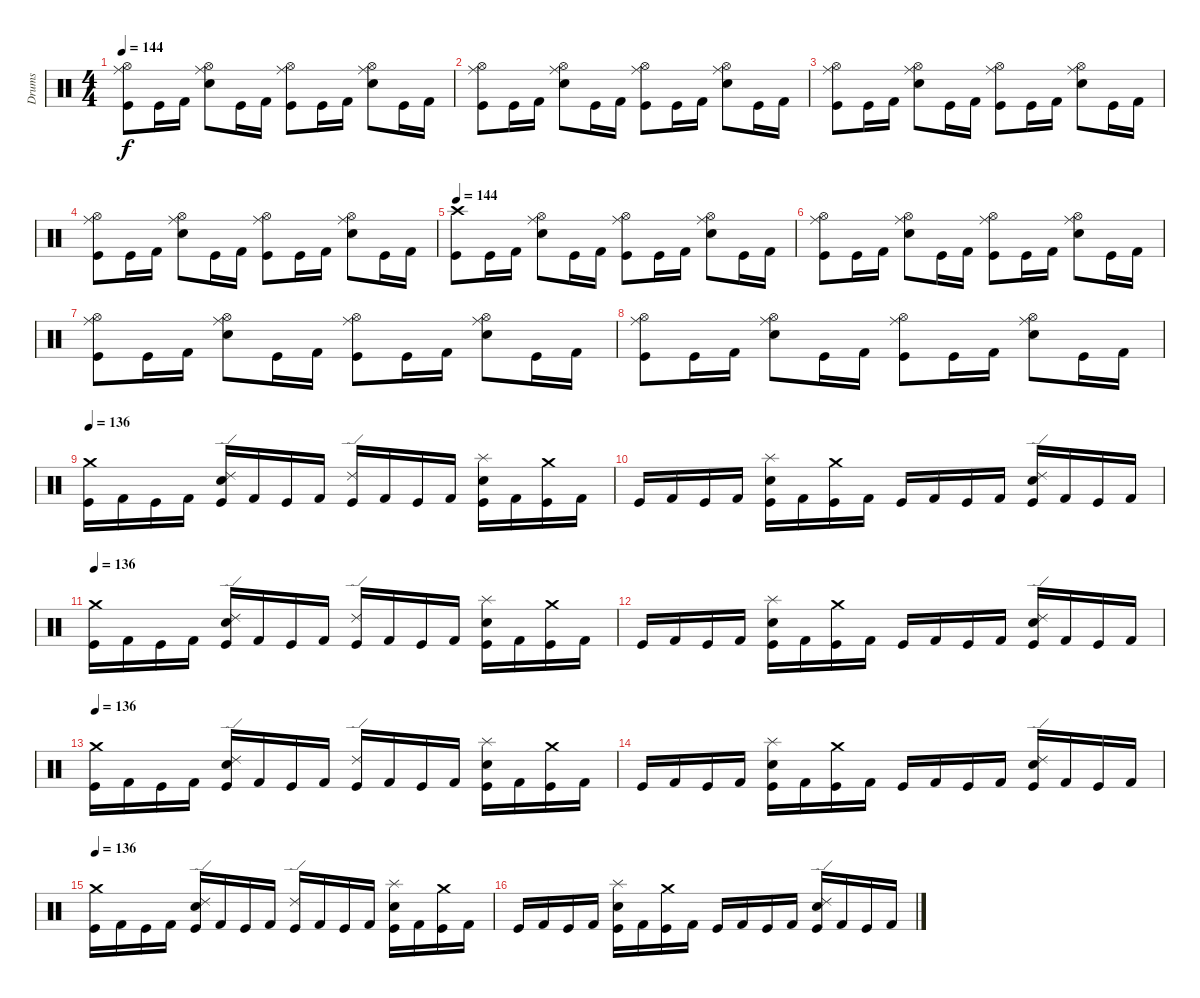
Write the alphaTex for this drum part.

\track ("Drums" "Drums") {instrument percussion}
\staff {score}
\articulation defaults
\ts (4 4)
\tempo 144
\clef neutral
\ks c
("Ride (middle)" "Hi-Hat (open)" "Kick (hit)").8{dy f} "Kick (hit)".16 "Kick (hit) 2".16 ("Ride (middle)" "Hi-Hat (open)" "Electric Snare (hit)").8 "Kick (hit)".16 "Kick (hit) 2".16 ("Ride (middle)" "Hi-Hat (open)" "Kick (hit)").8 "Kick (hit)".16 "Kick (hit) 2".16 ("Ride (middle)" "Hi-Hat (open)" "Electric Snare (hit)").8 "Kick (hit)".16 "Kick (hit) 2".16 |
("Ride (middle)" "Hi-Hat (open)" "Kick (hit)").8 "Kick (hit)".16 "Kick (hit) 2".16 ("Ride (middle)" "Hi-Hat (open)" "Electric Snare (hit)").8 "Kick (hit)".16 "Kick (hit) 2".16 ("Ride (middle)" "Hi-Hat (open)" "Kick (hit)").8 "Kick (hit)".16 "Kick (hit) 2".16 ("Ride (middle)" "Hi-Hat (open)" "Electric Snare (hit)").8 "Kick (hit)".16 "Kick (hit) 2".16 |
("Ride (middle)" "Hi-Hat (open)" "Kick (hit)").8 "Kick (hit)".16 "Kick (hit) 2".16 ("Ride (middle)" "Hi-Hat (open)" "Electric Snare (hit)").8 "Kick (hit)".16 "Kick (hit) 2".16 ("Ride (middle)" "Hi-Hat (open)" "Kick (hit)").8 "Kick (hit)".16 "Kick (hit) 2".16 ("Ride (middle)" "Hi-Hat (open)" "Electric Snare (hit)").8 "Kick (hit)".16 "Kick (hit) 2".16 |
("Ride (middle)" "Hi-Hat (open)" "Kick (hit)").8 "Kick (hit)".16 "Kick (hit) 2".16 ("Ride (middle)" "Hi-Hat (open)" "Electric Snare (hit)").8 "Kick (hit)".16 "Kick (hit) 2".16 ("Ride (middle)" "Hi-Hat (open)" "Kick (hit)").8 "Kick (hit)".16 "Kick (hit) 2".16 ("Ride (middle)" "Hi-Hat (open)" "Electric Snare (hit)").8 "Kick (hit)".16 "Kick (hit) 2".16 |
\tempo 144
("Crash high (hit)" "Kick (hit)").8 "Kick (hit)".16 "Kick (hit) 2".16 ("Ride (middle)" "Hi-Hat (open)" "Electric Snare (hit)").8 "Kick (hit)".16 "Kick (hit) 2".16 ("Ride (middle)" "Hi-Hat (open)" "Kick (hit)").8 "Kick (hit)".16 "Kick (hit) 2".16 ("Ride (middle)" "Hi-Hat (open)" "Electric Snare (hit)").8 "Kick (hit)".16 "Kick (hit) 2".16 |
("Ride (middle)" "Hi-Hat (open)" "Kick (hit)").8 "Kick (hit)".16 "Kick (hit) 2".16 ("Ride (middle)" "Hi-Hat (open)" "Electric Snare (hit)").8 "Kick (hit)".16 "Kick (hit) 2".16 ("Ride (middle)" "Hi-Hat (open)" "Kick (hit)").8 "Kick (hit)".16 "Kick (hit) 2".16 ("Ride (middle)" "Hi-Hat (open)" "Electric Snare (hit)").8 "Kick (hit)".16 "Kick (hit) 2".16 |
("Ride (middle)" "Hi-Hat (open)" "Kick (hit)").8 "Kick (hit)".16 "Kick (hit) 2".16 ("Ride (middle)" "Hi-Hat (open)" "Electric Snare (hit)").8 "Kick (hit)".16 "Kick (hit) 2".16 ("Ride (middle)" "Hi-Hat (open)" "Kick (hit)").8 "Kick (hit)".16 "Kick (hit) 2".16 ("Ride (middle)" "Hi-Hat (open)" "Electric Snare (hit)").8 "Kick (hit)".16 "Kick (hit) 2".16 |
("Ride (middle)" "Hi-Hat (open)" "Kick (hit)").8 "Kick (hit)".16 "Kick (hit) 2".16 ("Ride (middle)" "Hi-Hat (open)" "Electric Snare (hit)").8 "Kick (hit)".16 "Kick (hit) 2".16 ("Ride (middle)" "Hi-Hat (open)" "Kick (hit)").8 "Kick (hit)".16 "Kick (hit) 2".16 ("Ride (middle)" "Hi-Hat (open)" "Electric Snare (hit)").8 "Kick (hit)".16 "Kick (hit) 2".16 |
\tempo 136
("Crash medium (hit)" "Kick (hit)").16 "Kick (hit) 2".16 "Kick (hit)".16 "Kick (hit) 2".16 ("Ride (edge) 2" "Electric Snare (hit)" "Kick (hit)").16 "Kick (hit) 2".16 "Kick (hit)".16 "Kick (hit) 2".16 ("Ride (edge) 2" "Kick (hit)").16 "Kick (hit) 2".16 "Kick (hit)".16 "Kick (hit) 2".16 ("Splash (hit)" "Electric Snare (hit)" "Kick (hit)").16 "Kick (hit) 2".16 ("Crash medium (hit)" "Kick (hit)").16 "Kick (hit) 2".16 |
"Kick (hit)".16 "Kick (hit) 2".16 "Kick (hit)".16 "Kick (hit) 2".16 ("Splash (hit)" "Electric Snare (hit)" "Kick (hit)").16 "Kick (hit) 2".16 ("Crash medium (hit)" "Kick (hit)").16 "Kick (hit) 2".16 "Kick (hit)".16 "Kick (hit) 2".16 "Kick (hit)".16 "Kick (hit) 2".16 ("Ride (edge) 2" "Electric Snare (hit)" "Kick (hit)").16 "Kick (hit) 2".16 "Kick (hit)".16 "Kick (hit) 2".16 |
\tempo 136
("Crash medium (hit)" "Kick (hit)").16 "Kick (hit) 2".16 "Kick (hit)".16 "Kick (hit) 2".16 ("Ride (edge) 2" "Electric Snare (hit)" "Kick (hit)").16 "Kick (hit) 2".16 "Kick (hit)".16 "Kick (hit) 2".16 ("Ride (edge) 2" "Kick (hit)").16 "Kick (hit) 2".16 "Kick (hit)".16 "Kick (hit) 2".16 ("Splash (hit)" "Electric Snare (hit)" "Kick (hit)").16 "Kick (hit) 2".16 ("Crash medium (hit)" "Kick (hit)").16 "Kick (hit) 2".16 |
"Kick (hit)".16 "Kick (hit) 2".16 "Kick (hit)".16 "Kick (hit) 2".16 ("Splash (hit)" "Electric Snare (hit)" "Kick (hit)").16 "Kick (hit) 2".16 ("Crash medium (hit)" "Kick (hit)").16 "Kick (hit) 2".16 "Kick (hit)".16 "Kick (hit) 2".16 "Kick (hit)".16 "Kick (hit) 2".16 ("Ride (edge) 2" "Electric Snare (hit)" "Kick (hit)").16 "Kick (hit) 2".16 "Kick (hit)".16 "Kick (hit) 2".16 |
\tempo 136
("Crash medium (hit)" "Kick (hit)").16 "Kick (hit) 2".16 "Kick (hit)".16 "Kick (hit) 2".16 ("Ride (edge) 2" "Electric Snare (hit)" "Kick (hit)").16 "Kick (hit) 2".16 "Kick (hit)".16 "Kick (hit) 2".16 ("Ride (edge) 2" "Kick (hit)").16 "Kick (hit) 2".16 "Kick (hit)".16 "Kick (hit) 2".16 ("Splash (hit)" "Electric Snare (hit)" "Kick (hit)").16 "Kick (hit) 2".16 ("Crash medium (hit)" "Kick (hit)").16 "Kick (hit) 2".16 |
"Kick (hit)".16 "Kick (hit) 2".16 "Kick (hit)".16 "Kick (hit) 2".16 ("Splash (hit)" "Electric Snare (hit)" "Kick (hit)").16 "Kick (hit) 2".16 ("Crash medium (hit)" "Kick (hit)").16 "Kick (hit) 2".16 "Kick (hit)".16 "Kick (hit) 2".16 "Kick (hit)".16 "Kick (hit) 2".16 ("Ride (edge) 2" "Electric Snare (hit)" "Kick (hit)").16 "Kick (hit) 2".16 "Kick (hit)".16 "Kick (hit) 2".16 |
\tempo 136
("Crash medium (hit)" "Kick (hit)").16 "Kick (hit) 2".16 "Kick (hit)".16 "Kick (hit) 2".16 ("Ride (edge) 2" "Electric Snare (hit)" "Kick (hit)").16 "Kick (hit) 2".16 "Kick (hit)".16 "Kick (hit) 2".16 ("Ride (edge) 2" "Kick (hit)").16 "Kick (hit) 2".16 "Kick (hit)".16 "Kick (hit) 2".16 ("Splash (hit)" "Electric Snare (hit)" "Kick (hit)").16 "Kick (hit) 2".16 ("Crash medium (hit)" "Kick (hit)").16 "Kick (hit) 2".16 |
"Kick (hit)".16 "Kick (hit) 2".16 "Kick (hit)".16 "Kick (hit) 2".16 ("Splash (hit)" "Electric Snare (hit)" "Kick (hit)").16 "Kick (hit) 2".16 ("Crash medium (hit)" "Kick (hit)").16 "Kick (hit) 2".16 "Kick (hit)".16 "Kick (hit) 2".16 "Kick (hit)".16 "Kick (hit) 2".16 ("Ride (edge) 2" "Electric Snare (hit)" "Kick (hit)").16 "Kick (hit) 2".16 "Kick (hit)".16 "Kick (hit) 2".16
